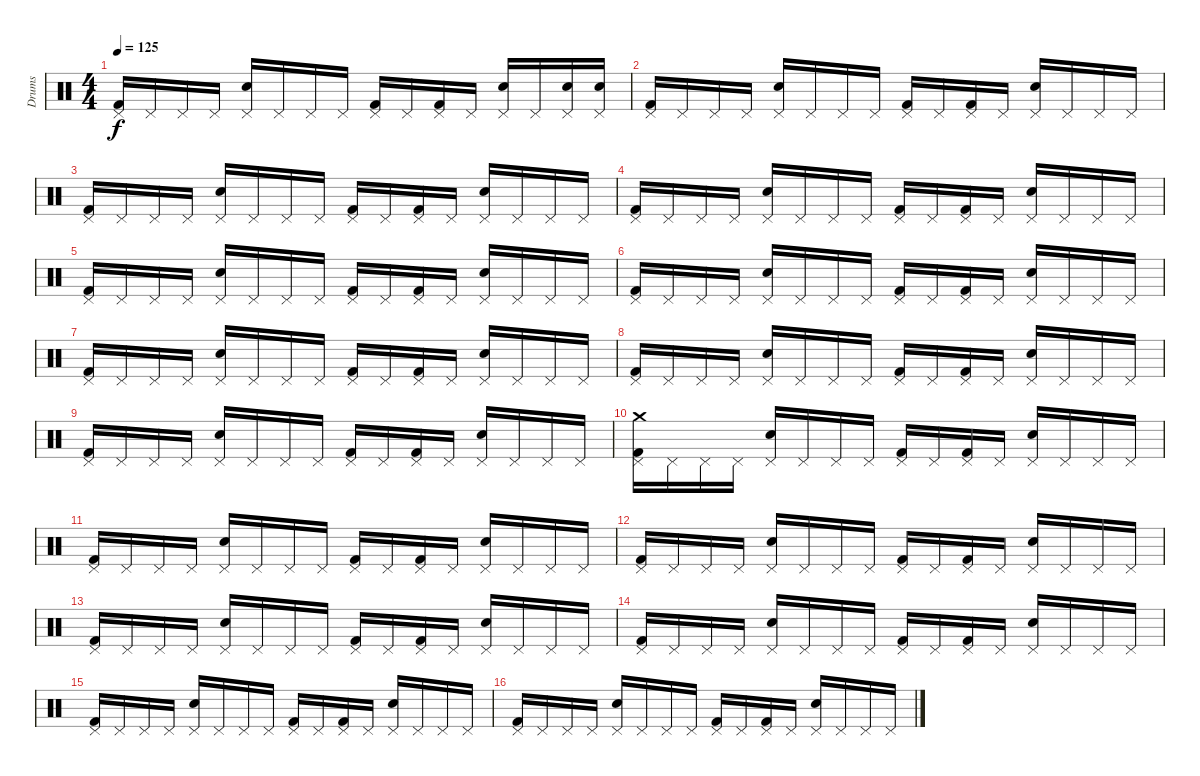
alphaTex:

\track ("Drums" "Drums") {instrument percussion}
\staff {score}
\articulation defaults
\ts (4 4)
\tempo 125
\clef neutral
\ks c
("Pedal Hi-Hat (hit)" "Kick (hit) 2").16{dy f} "Pedal Hi-Hat (hit)".16 "Pedal Hi-Hat (hit)".16 "Pedal Hi-Hat (hit)".16 ("Pedal Hi-Hat (hit)" "Snare (hit) 2").16 "Pedal Hi-Hat (hit)".16 "Pedal Hi-Hat (hit)".16 "Pedal Hi-Hat (hit)".16 ("Pedal Hi-Hat (hit)" "Kick (hit) 2").16 "Pedal Hi-Hat (hit)".16 ("Pedal Hi-Hat (hit)" "Kick (hit) 2").16 "Pedal Hi-Hat (hit)".16 ("Pedal Hi-Hat (hit)" "Snare (hit) 2").16 "Pedal Hi-Hat (hit)".16 ("Snare (hit) 2" "Pedal Hi-Hat (hit)").16 ("Snare (hit) 2" "Pedal Hi-Hat (hit)").16 |
("Kick (hit) 2" "Pedal Hi-Hat (hit)").16 "Pedal Hi-Hat (hit)".16 "Pedal Hi-Hat (hit)".16 "Pedal Hi-Hat (hit)".16 ("Snare (hit) 2" "Pedal Hi-Hat (hit)").16 "Pedal Hi-Hat (hit)".16 "Pedal Hi-Hat (hit)".16 "Pedal Hi-Hat (hit)".16 ("Kick (hit) 2" "Pedal Hi-Hat (hit)").16 "Pedal Hi-Hat (hit)".16 ("Kick (hit) 2" "Pedal Hi-Hat (hit)").16 "Pedal Hi-Hat (hit)".16 ("Snare (hit) 2" "Pedal Hi-Hat (hit)").16 "Pedal Hi-Hat (hit)".16 "Pedal Hi-Hat (hit)".16 "Pedal Hi-Hat (hit)".16 |
("Pedal Hi-Hat (hit)" "Kick (hit) 2").16 "Pedal Hi-Hat (hit)".16 "Pedal Hi-Hat (hit)".16 "Pedal Hi-Hat (hit)".16 ("Pedal Hi-Hat (hit)" "Snare (hit) 2").16 "Pedal Hi-Hat (hit)".16 "Pedal Hi-Hat (hit)".16 "Pedal Hi-Hat (hit)".16 ("Pedal Hi-Hat (hit)" "Kick (hit) 2").16 "Pedal Hi-Hat (hit)".16 ("Pedal Hi-Hat (hit)" "Kick (hit) 2").16 "Pedal Hi-Hat (hit)".16 ("Pedal Hi-Hat (hit)" "Snare (hit) 2").16 "Pedal Hi-Hat (hit)".16 "Pedal Hi-Hat (hit)".16 "Pedal Hi-Hat (hit)".16 |
("Kick (hit) 2" "Pedal Hi-Hat (hit)").16 "Pedal Hi-Hat (hit)".16 "Pedal Hi-Hat (hit)".16 "Pedal Hi-Hat (hit)".16 ("Snare (hit) 2" "Pedal Hi-Hat (hit)").16 "Pedal Hi-Hat (hit)".16 "Pedal Hi-Hat (hit)".16 "Pedal Hi-Hat (hit)".16 ("Kick (hit) 2" "Pedal Hi-Hat (hit)").16 "Pedal Hi-Hat (hit)".16 ("Kick (hit) 2" "Pedal Hi-Hat (hit)").16 "Pedal Hi-Hat (hit)".16 ("Snare (hit) 2" "Pedal Hi-Hat (hit)").16 "Pedal Hi-Hat (hit)".16 "Pedal Hi-Hat (hit)".16 "Pedal Hi-Hat (hit)".16 |
("Kick (hit) 2" "Pedal Hi-Hat (hit)").16 "Pedal Hi-Hat (hit)".16 "Pedal Hi-Hat (hit)".16 "Pedal Hi-Hat (hit)".16 ("Snare (hit) 2" "Pedal Hi-Hat (hit)").16 "Pedal Hi-Hat (hit)".16 "Pedal Hi-Hat (hit)".16 "Pedal Hi-Hat (hit)".16 ("Kick (hit) 2" "Pedal Hi-Hat (hit)").16 "Pedal Hi-Hat (hit)".16 ("Kick (hit) 2" "Pedal Hi-Hat (hit)").16 "Pedal Hi-Hat (hit)".16 ("Snare (hit) 2" "Pedal Hi-Hat (hit)").16 "Pedal Hi-Hat (hit)".16 "Pedal Hi-Hat (hit)".16 "Pedal Hi-Hat (hit)".16 |
("Kick (hit) 2" "Pedal Hi-Hat (hit)").16 "Pedal Hi-Hat (hit)".16 "Pedal Hi-Hat (hit)".16 "Pedal Hi-Hat (hit)".16 ("Snare (hit) 2" "Pedal Hi-Hat (hit)").16 "Pedal Hi-Hat (hit)".16 "Pedal Hi-Hat (hit)".16 "Pedal Hi-Hat (hit)".16 ("Kick (hit) 2" "Pedal Hi-Hat (hit)").16 "Pedal Hi-Hat (hit)".16 ("Kick (hit) 2" "Pedal Hi-Hat (hit)").16 "Pedal Hi-Hat (hit)".16 ("Snare (hit) 2" "Pedal Hi-Hat (hit)").16 "Pedal Hi-Hat (hit)".16 "Pedal Hi-Hat (hit)".16 "Pedal Hi-Hat (hit)".16 |
("Kick (hit) 2" "Pedal Hi-Hat (hit)").16 "Pedal Hi-Hat (hit)".16 "Pedal Hi-Hat (hit)".16 "Pedal Hi-Hat (hit)".16 ("Snare (hit) 2" "Pedal Hi-Hat (hit)").16 "Pedal Hi-Hat (hit)".16 "Pedal Hi-Hat (hit)".16 "Pedal Hi-Hat (hit)".16 ("Kick (hit) 2" "Pedal Hi-Hat (hit)").16 "Pedal Hi-Hat (hit)".16 ("Kick (hit) 2" "Pedal Hi-Hat (hit)").16 "Pedal Hi-Hat (hit)".16 ("Snare (hit) 2" "Pedal Hi-Hat (hit)").16 "Pedal Hi-Hat (hit)".16 "Pedal Hi-Hat (hit)".16 "Pedal Hi-Hat (hit)".16 |
("Pedal Hi-Hat (hit)" "Kick (hit) 2").16 "Pedal Hi-Hat (hit)".16 "Pedal Hi-Hat (hit)".16 "Pedal Hi-Hat (hit)".16 ("Pedal Hi-Hat (hit)" "Snare (hit) 2").16 "Pedal Hi-Hat (hit)".16 "Pedal Hi-Hat (hit)".16 "Pedal Hi-Hat (hit)".16 ("Pedal Hi-Hat (hit)" "Kick (hit) 2").16 "Pedal Hi-Hat (hit)".16 ("Pedal Hi-Hat (hit)" "Kick (hit) 2").16 "Pedal Hi-Hat (hit)".16 ("Pedal Hi-Hat (hit)" "Snare (hit) 2").16 "Pedal Hi-Hat (hit)".16 "Pedal Hi-Hat (hit)".16 "Pedal Hi-Hat (hit)".16 |
("Pedal Hi-Hat (hit)" "Kick (hit) 2").16 "Pedal Hi-Hat (hit)".16 "Pedal Hi-Hat (hit)".16 "Pedal Hi-Hat (hit)".16 ("Pedal Hi-Hat (hit)" "Snare (hit) 2").16 "Pedal Hi-Hat (hit)".16 "Pedal Hi-Hat (hit)".16 "Pedal Hi-Hat (hit)".16 ("Pedal Hi-Hat (hit)" "Kick (hit) 2").16 "Pedal Hi-Hat (hit)".16 ("Pedal Hi-Hat (hit)" "Kick (hit) 2").16 "Pedal Hi-Hat (hit)".16 ("Pedal Hi-Hat (hit)" "Snare (hit) 2").16 "Pedal Hi-Hat (hit)".16 "Pedal Hi-Hat (hit)".16 "Pedal Hi-Hat (hit)".16 |
("Crash medium (hit)" "Pedal Hi-Hat (hit)" "Kick (hit) 2").16 "Pedal Hi-Hat (hit)".16 "Pedal Hi-Hat (hit)".16 "Pedal Hi-Hat (hit)".16 ("Pedal Hi-Hat (hit)" "Snare (hit) 2").16 "Pedal Hi-Hat (hit)".16 "Pedal Hi-Hat (hit)".16 "Pedal Hi-Hat (hit)".16 ("Pedal Hi-Hat (hit)" "Kick (hit) 2").16 "Pedal Hi-Hat (hit)".16 ("Pedal Hi-Hat (hit)" "Kick (hit) 2").16 "Pedal Hi-Hat (hit)".16 ("Pedal Hi-Hat (hit)" "Snare (hit) 2").16 "Pedal Hi-Hat (hit)".16 "Pedal Hi-Hat (hit)".16 "Pedal Hi-Hat (hit)".16 |
("Kick (hit) 2" "Pedal Hi-Hat (hit)").16 "Pedal Hi-Hat (hit)".16 "Pedal Hi-Hat (hit)".16 "Pedal Hi-Hat (hit)".16 ("Snare (hit) 2" "Pedal Hi-Hat (hit)").16 "Pedal Hi-Hat (hit)".16 "Pedal Hi-Hat (hit)".16 "Pedal Hi-Hat (hit)".16 ("Kick (hit) 2" "Pedal Hi-Hat (hit)").16 "Pedal Hi-Hat (hit)".16 ("Kick (hit) 2" "Pedal Hi-Hat (hit)").16 "Pedal Hi-Hat (hit)".16 ("Snare (hit) 2" "Pedal Hi-Hat (hit)").16 "Pedal Hi-Hat (hit)".16 "Pedal Hi-Hat (hit)".16 "Pedal Hi-Hat (hit)".16 |
("Pedal Hi-Hat (hit)" "Kick (hit) 2").16 "Pedal Hi-Hat (hit)".16 "Pedal Hi-Hat (hit)".16 "Pedal Hi-Hat (hit)".16 ("Pedal Hi-Hat (hit)" "Snare (hit) 2").16 "Pedal Hi-Hat (hit)".16 "Pedal Hi-Hat (hit)".16 "Pedal Hi-Hat (hit)".16 ("Pedal Hi-Hat (hit)" "Kick (hit) 2").16 "Pedal Hi-Hat (hit)".16 ("Pedal Hi-Hat (hit)" "Kick (hit) 2").16 "Pedal Hi-Hat (hit)".16 ("Pedal Hi-Hat (hit)" "Snare (hit) 2").16 "Pedal Hi-Hat (hit)".16 "Pedal Hi-Hat (hit)".16 "Pedal Hi-Hat (hit)".16 |
("Kick (hit) 2" "Pedal Hi-Hat (hit)").16 "Pedal Hi-Hat (hit)".16 "Pedal Hi-Hat (hit)".16 "Pedal Hi-Hat (hit)".16 ("Snare (hit) 2" "Pedal Hi-Hat (hit)").16 "Pedal Hi-Hat (hit)".16 "Pedal Hi-Hat (hit)".16 "Pedal Hi-Hat (hit)".16 ("Kick (hit) 2" "Pedal Hi-Hat (hit)").16 "Pedal Hi-Hat (hit)".16 ("Kick (hit) 2" "Pedal Hi-Hat (hit)").16 "Pedal Hi-Hat (hit)".16 ("Snare (hit) 2" "Pedal Hi-Hat (hit)").16 "Pedal Hi-Hat (hit)".16 "Pedal Hi-Hat (hit)".16 "Pedal Hi-Hat (hit)".16 |
("Kick (hit) 2" "Pedal Hi-Hat (hit)").16 "Pedal Hi-Hat (hit)".16 "Pedal Hi-Hat (hit)".16 "Pedal Hi-Hat (hit)".16 ("Snare (hit) 2" "Pedal Hi-Hat (hit)").16 "Pedal Hi-Hat (hit)".16 "Pedal Hi-Hat (hit)".16 "Pedal Hi-Hat (hit)".16 ("Kick (hit) 2" "Pedal Hi-Hat (hit)").16 "Pedal Hi-Hat (hit)".16 ("Kick (hit) 2" "Pedal Hi-Hat (hit)").16 "Pedal Hi-Hat (hit)".16 ("Snare (hit) 2" "Pedal Hi-Hat (hit)").16 "Pedal Hi-Hat (hit)".16 "Pedal Hi-Hat (hit)".16 "Pedal Hi-Hat (hit)".16 |
("Kick (hit) 2" "Pedal Hi-Hat (hit)").16 "Pedal Hi-Hat (hit)".16 "Pedal Hi-Hat (hit)".16 "Pedal Hi-Hat (hit)".16 ("Snare (hit) 2" "Pedal Hi-Hat (hit)").16 "Pedal Hi-Hat (hit)".16 "Pedal Hi-Hat (hit)".16 "Pedal Hi-Hat (hit)".16 ("Kick (hit) 2" "Pedal Hi-Hat (hit)").16 "Pedal Hi-Hat (hit)".16 ("Kick (hit) 2" "Pedal Hi-Hat (hit)").16 "Pedal Hi-Hat (hit)".16 ("Snare (hit) 2" "Pedal Hi-Hat (hit)").16 "Pedal Hi-Hat (hit)".16 "Pedal Hi-Hat (hit)".16 "Pedal Hi-Hat (hit)".16 |
("Kick (hit) 2" "Pedal Hi-Hat (hit)").16 "Pedal Hi-Hat (hit)".16 "Pedal Hi-Hat (hit)".16 "Pedal Hi-Hat (hit)".16 ("Snare (hit) 2" "Pedal Hi-Hat (hit)").16 "Pedal Hi-Hat (hit)".16 "Pedal Hi-Hat (hit)".16 "Pedal Hi-Hat (hit)".16 ("Kick (hit) 2" "Pedal Hi-Hat (hit)").16 "Pedal Hi-Hat (hit)".16 ("Kick (hit) 2" "Pedal Hi-Hat (hit)").16 "Pedal Hi-Hat (hit)".16 ("Snare (hit) 2" "Pedal Hi-Hat (hit)").16 "Pedal Hi-Hat (hit)".16 "Pedal Hi-Hat (hit)".16 "Pedal Hi-Hat (hit)".16
